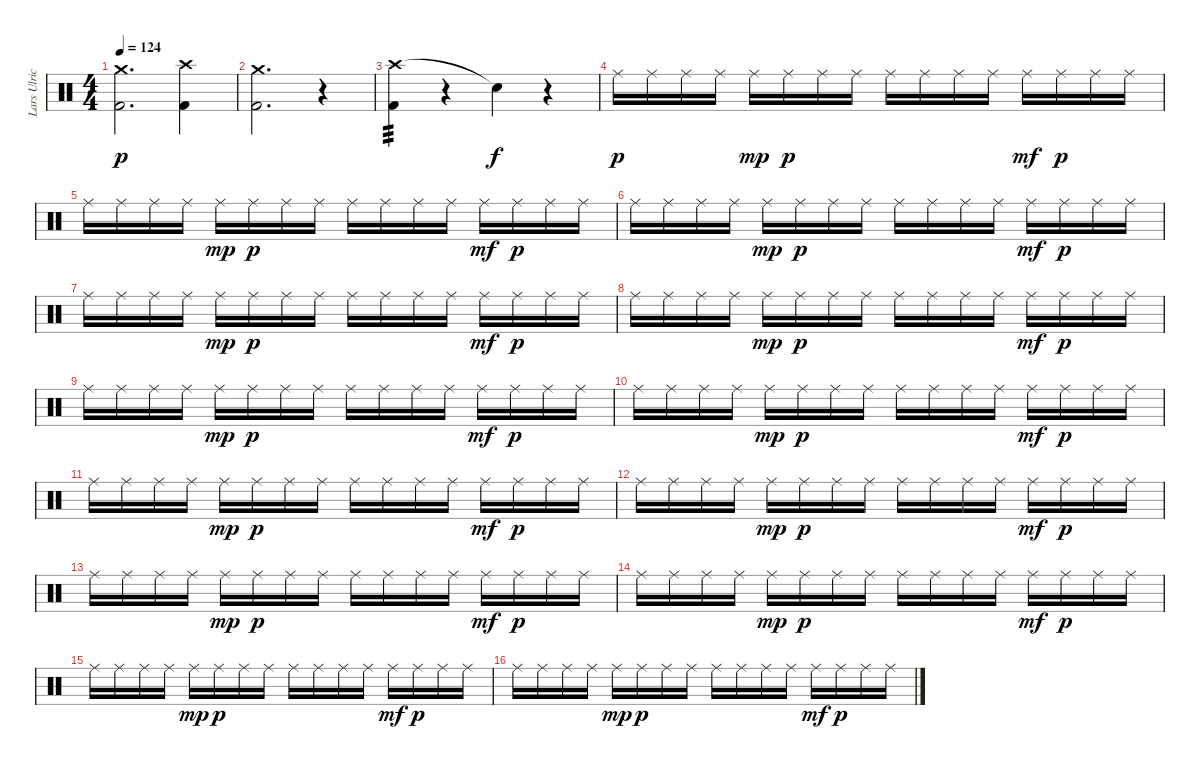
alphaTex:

\track ("Lars Ulrich" "Lars Ulric") {instrument percussion}
\staff {score}
\articulation defaults
\ts (4 4)
\tempo 124
\clef neutral
\ks c
("Crash medium (hit)" "Kick (hit) 2").2{d dy p} ("Crash high (hit)" "Kick (hit) 2").4 |
("Crash medium (hit)" "Kick (hit) 2").2{d} r.4 |
("Crash high (hit)" "Kick (hit) 2").4{tp 3} r.4 "Snare (hit)"{t}.4{dy f} r.4 |
"Ride (middle)".16{dy p} "Ride (middle)".16 "Ride (middle)".16 "Ride (middle)".16 "Ride (middle)".16{dy mp} "Ride (middle)".16{dy p} "Ride (middle)".16 "Ride (middle)".16 "Ride (middle)".16 "Ride (middle)".16 "Ride (middle)".16 "Ride (middle)".16 "Ride (middle)".16{dy mf} "Ride (middle)".16{dy p} "Ride (middle)".16 "Ride (middle)".16 |
"Ride (middle)".16 "Ride (middle)".16 "Ride (middle)".16 "Ride (middle)".16 "Ride (middle)".16{dy mp} "Ride (middle)".16{dy p} "Ride (middle)".16 "Ride (middle)".16 "Ride (middle)".16 "Ride (middle)".16 "Ride (middle)".16 "Ride (middle)".16 "Ride (middle)".16{dy mf} "Ride (middle)".16{dy p} "Ride (middle)".16 "Ride (middle)".16 |
"Ride (middle)".16 "Ride (middle)".16 "Ride (middle)".16 "Ride (middle)".16 "Ride (middle)".16{dy mp} "Ride (middle)".16{dy p} "Ride (middle)".16 "Ride (middle)".16 "Ride (middle)".16 "Ride (middle)".16 "Ride (middle)".16 "Ride (middle)".16 "Ride (middle)".16{dy mf} "Ride (middle)".16{dy p} "Ride (middle)".16 "Ride (middle)".16 |
"Ride (middle)".16 "Ride (middle)".16 "Ride (middle)".16 "Ride (middle)".16 "Ride (middle)".16{dy mp} "Ride (middle)".16{dy p} "Ride (middle)".16 "Ride (middle)".16 "Ride (middle)".16 "Ride (middle)".16 "Ride (middle)".16 "Ride (middle)".16 "Ride (middle)".16{dy mf} "Ride (middle)".16{dy p} "Ride (middle)".16 "Ride (middle)".16 |
"Ride (middle)".16 "Ride (middle)".16 "Ride (middle)".16 "Ride (middle)".16 "Ride (middle)".16{dy mp} "Ride (middle)".16{dy p} "Ride (middle)".16 "Ride (middle)".16 "Ride (middle)".16 "Ride (middle)".16 "Ride (middle)".16 "Ride (middle)".16 "Ride (middle)".16{dy mf} "Ride (middle)".16{dy p} "Ride (middle)".16 "Ride (middle)".16 |
"Ride (middle)".16 "Ride (middle)".16 "Ride (middle)".16 "Ride (middle)".16 "Ride (middle)".16{dy mp} "Ride (middle)".16{dy p} "Ride (middle)".16 "Ride (middle)".16 "Ride (middle)".16 "Ride (middle)".16 "Ride (middle)".16 "Ride (middle)".16 "Ride (middle)".16{dy mf} "Ride (middle)".16{dy p} "Ride (middle)".16 "Ride (middle)".16 |
"Ride (middle)".16 "Ride (middle)".16 "Ride (middle)".16 "Ride (middle)".16 "Ride (middle)".16{dy mp} "Ride (middle)".16{dy p} "Ride (middle)".16 "Ride (middle)".16 "Ride (middle)".16 "Ride (middle)".16 "Ride (middle)".16 "Ride (middle)".16 "Ride (middle)".16{dy mf} "Ride (middle)".16{dy p} "Ride (middle)".16 "Ride (middle)".16 |
"Ride (middle)".16 "Ride (middle)".16 "Ride (middle)".16 "Ride (middle)".16 "Ride (middle)".16{dy mp} "Ride (middle)".16{dy p} "Ride (middle)".16 "Ride (middle)".16 "Ride (middle)".16 "Ride (middle)".16 "Ride (middle)".16 "Ride (middle)".16 "Ride (middle)".16{dy mf} "Ride (middle)".16{dy p} "Ride (middle)".16 "Ride (middle)".16 |
"Ride (middle)".16 "Ride (middle)".16 "Ride (middle)".16 "Ride (middle)".16 "Ride (middle)".16{dy mp} "Ride (middle)".16{dy p} "Ride (middle)".16 "Ride (middle)".16 "Ride (middle)".16 "Ride (middle)".16 "Ride (middle)".16 "Ride (middle)".16 "Ride (middle)".16{dy mf} "Ride (middle)".16{dy p} "Ride (middle)".16 "Ride (middle)".16 |
"Ride (middle)".16 "Ride (middle)".16 "Ride (middle)".16 "Ride (middle)".16 "Ride (middle)".16{dy mp} "Ride (middle)".16{dy p} "Ride (middle)".16 "Ride (middle)".16 "Ride (middle)".16 "Ride (middle)".16 "Ride (middle)".16 "Ride (middle)".16 "Ride (middle)".16{dy mf} "Ride (middle)".16{dy p} "Ride (middle)".16 "Ride (middle)".16 |
"Ride (middle)".16 "Ride (middle)".16 "Ride (middle)".16 "Ride (middle)".16 "Ride (middle)".16{dy mp} "Ride (middle)".16{dy p} "Ride (middle)".16 "Ride (middle)".16 "Ride (middle)".16 "Ride (middle)".16 "Ride (middle)".16 "Ride (middle)".16 "Ride (middle)".16{dy mf} "Ride (middle)".16{dy p} "Ride (middle)".16 "Ride (middle)".16 |
"Ride (middle)".16 "Ride (middle)".16 "Ride (middle)".16 "Ride (middle)".16 "Ride (middle)".16{dy mp} "Ride (middle)".16{dy p} "Ride (middle)".16 "Ride (middle)".16 "Ride (middle)".16 "Ride (middle)".16 "Ride (middle)".16 "Ride (middle)".16 "Ride (middle)".16{dy mf} "Ride (middle)".16{dy p} "Ride (middle)".16 "Ride (middle)".16 |
"Ride (middle)".16 "Ride (middle)".16 "Ride (middle)".16 "Ride (middle)".16 "Ride (middle)".16{dy mp} "Ride (middle)".16{dy p} "Ride (middle)".16 "Ride (middle)".16 "Ride (middle)".16 "Ride (middle)".16 "Ride (middle)".16 "Ride (middle)".16 "Ride (middle)".16{dy mf} "Ride (middle)".16{dy p} "Ride (middle)".16 "Ride (middle)".16
